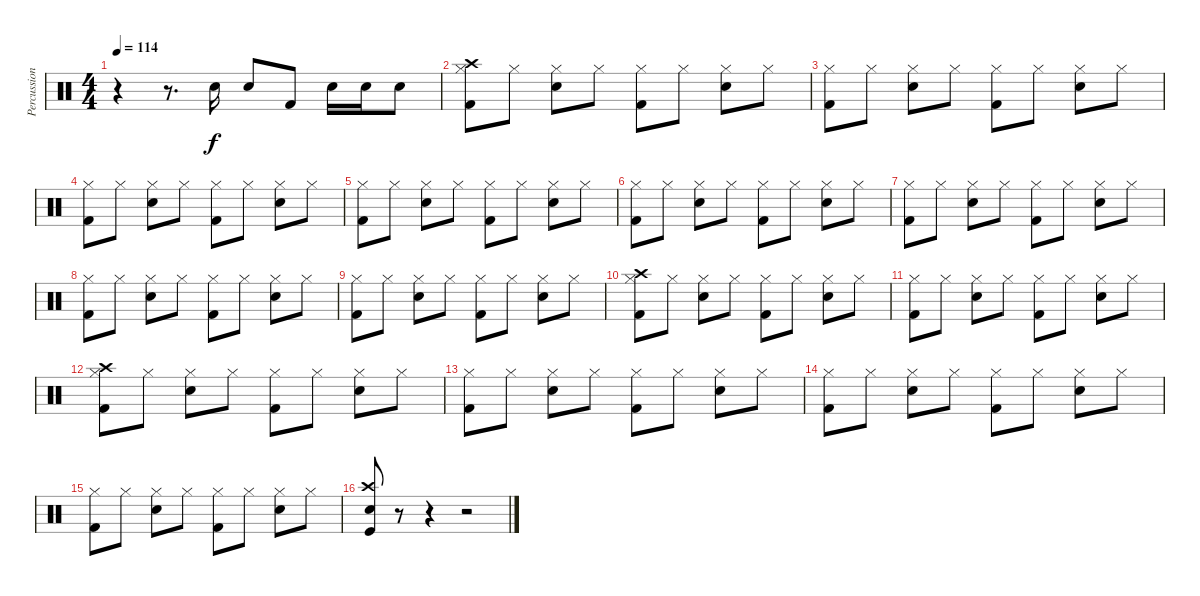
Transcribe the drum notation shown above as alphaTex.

\track ("Percussion" "Percussion") {instrument percussion}
\staff {score}
\articulation defaults
\ts (4 4)
\tempo 114
\clef neutral
\ks c
r.4{dy f} r.8{d} "Snare (hit) 2".16 "Snare (hit) 2".8 "Kick (hit) 2".8 "Snare (hit) 2".16 "Snare (hit) 2".16 "Snare (hit) 2".8 |
("Crash high (hit)" "Hi-Hat (closed)" "Kick (hit) 2").8 "Hi-Hat (closed)".8 ("Hi-Hat (closed)" "Snare (hit) 2").8 "Hi-Hat (closed)".8 ("Hi-Hat (closed)" "Kick (hit) 2").8 "Hi-Hat (closed)".8 ("Hi-Hat (closed)" "Snare (hit) 2").8 "Hi-Hat (closed)".8 |
("Hi-Hat (closed)" "Kick (hit) 2").8 "Hi-Hat (closed)".8 ("Hi-Hat (closed)" "Snare (hit) 2").8 "Hi-Hat (closed)".8 ("Hi-Hat (closed)" "Kick (hit) 2").8 "Hi-Hat (closed)".8 ("Hi-Hat (closed)" "Snare (hit) 2").8 "Hi-Hat (closed)".8 |
("Hi-Hat (closed)" "Kick (hit) 2").8 "Hi-Hat (closed)".8 ("Hi-Hat (closed)" "Snare (hit) 2").8 "Hi-Hat (closed)".8 ("Hi-Hat (closed)" "Kick (hit) 2").8 "Hi-Hat (closed)".8 ("Hi-Hat (closed)" "Snare (hit) 2").8 "Hi-Hat (closed)".8 |
("Hi-Hat (closed)" "Kick (hit) 2").8 "Hi-Hat (closed)".8 ("Hi-Hat (closed)" "Snare (hit) 2").8 "Hi-Hat (closed)".8 ("Hi-Hat (closed)" "Kick (hit) 2").8 "Hi-Hat (closed)".8 ("Hi-Hat (closed)" "Snare (hit) 2").8 "Hi-Hat (closed)".8 |
("Hi-Hat (closed)" "Kick (hit) 2").8 "Hi-Hat (closed)".8 ("Hi-Hat (closed)" "Snare (hit) 2").8 "Hi-Hat (closed)".8 ("Hi-Hat (closed)" "Kick (hit) 2").8 "Hi-Hat (closed)".8 ("Hi-Hat (closed)" "Snare (hit) 2").8 "Hi-Hat (closed)".8 |
("Hi-Hat (closed)" "Kick (hit) 2").8 "Hi-Hat (closed)".8 ("Hi-Hat (closed)" "Snare (hit) 2").8 "Hi-Hat (closed)".8 ("Hi-Hat (closed)" "Kick (hit) 2").8 "Hi-Hat (closed)".8 ("Hi-Hat (closed)" "Snare (hit) 2").8 "Hi-Hat (closed)".8 |
("Hi-Hat (closed)" "Kick (hit) 2").8 "Hi-Hat (closed)".8 ("Hi-Hat (closed)" "Snare (hit) 2").8 "Hi-Hat (closed)".8 ("Hi-Hat (closed)" "Kick (hit) 2").8 "Hi-Hat (closed)".8 ("Hi-Hat (closed)" "Snare (hit) 2").8 "Hi-Hat (closed)".8 |
("Hi-Hat (closed)" "Kick (hit) 2").8 "Hi-Hat (closed)".8 ("Hi-Hat (closed)" "Snare (hit) 2").8 "Hi-Hat (closed)".8 ("Hi-Hat (closed)" "Kick (hit) 2").8 "Hi-Hat (closed)".8 ("Hi-Hat (closed)" "Snare (hit) 2").8 "Hi-Hat (closed)".8 |
("Crash high (hit)" "Hi-Hat (closed)" "Kick (hit) 2").8 "Hi-Hat (closed)".8 ("Hi-Hat (closed)" "Snare (hit) 2").8 "Hi-Hat (closed)".8 ("Hi-Hat (closed)" "Kick (hit) 2").8 "Hi-Hat (closed)".8 ("Hi-Hat (closed)" "Snare (hit) 2").8 "Hi-Hat (closed)".8 |
("Hi-Hat (closed)" "Kick (hit) 2").8 "Hi-Hat (closed)".8 ("Hi-Hat (closed)" "Snare (hit) 2").8 "Hi-Hat (closed)".8 ("Hi-Hat (closed)" "Kick (hit) 2").8 "Hi-Hat (closed)".8 ("Hi-Hat (closed)" "Snare (hit) 2").8 "Hi-Hat (closed)".8 |
("Crash high (hit)" "Hi-Hat (closed)" "Kick (hit) 2").8 "Hi-Hat (closed)".8 ("Hi-Hat (closed)" "Snare (hit) 2").8 "Hi-Hat (closed)".8 ("Hi-Hat (closed)" "Kick (hit) 2").8 "Hi-Hat (closed)".8 ("Hi-Hat (closed)" "Snare (hit) 2").8 "Hi-Hat (closed)".8 |
("Hi-Hat (closed)" "Kick (hit) 2").8 "Hi-Hat (closed)".8 ("Hi-Hat (closed)" "Snare (hit) 2").8 "Hi-Hat (closed)".8 ("Hi-Hat (closed)" "Kick (hit) 2").8 "Hi-Hat (closed)".8 ("Hi-Hat (closed)" "Snare (hit) 2").8 "Hi-Hat (closed)".8 |
("Hi-Hat (closed)" "Kick (hit) 2").8 "Hi-Hat (closed)".8 ("Hi-Hat (closed)" "Snare (hit) 2").8 "Hi-Hat (closed)".8 ("Hi-Hat (closed)" "Kick (hit) 2").8 "Hi-Hat (closed)".8 ("Hi-Hat (closed)" "Snare (hit) 2").8 "Hi-Hat (closed)".8 |
("Hi-Hat (closed)" "Kick (hit) 2").8 "Hi-Hat (closed)".8 ("Hi-Hat (closed)" "Snare (hit) 2").8 "Hi-Hat (closed)".8 ("Hi-Hat (closed)" "Kick (hit) 2").8 "Hi-Hat (closed)".8 ("Hi-Hat (closed)" "Snare (hit) 2").8 "Hi-Hat (closed)".8 |
("Crash high (hit)" "Snare (hit) 2" "Kick (hit)").8 r.8 r.4 r.2
